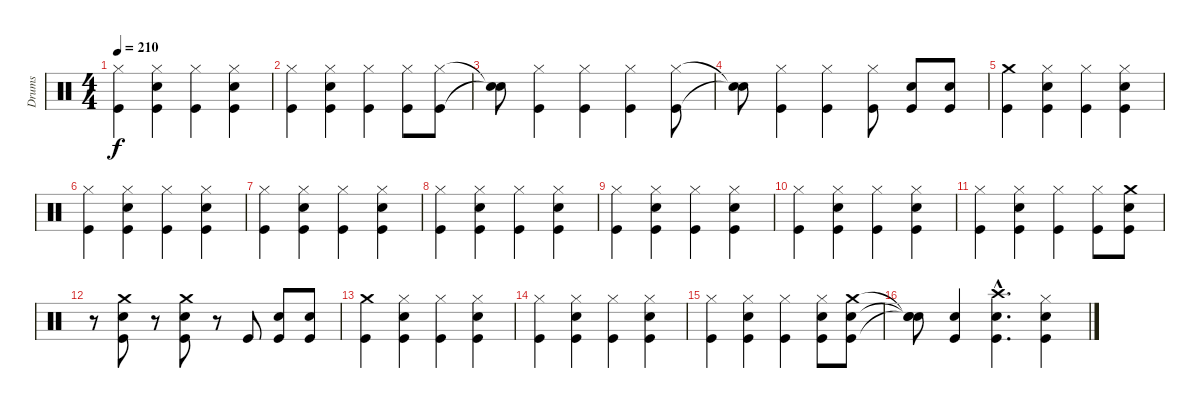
\track ("Drums" "Drums") {instrument percussion}
\staff {score}
\articulation defaults
\ts (4 4)
\tempo 210
\clef neutral
\ks c
("Hi-Hat (closed)" "Kick (hit)").4{dy f} ("Hi-Hat (closed)" "Snare (hit) 2" "Kick (hit)").4 ("Hi-Hat (closed)" "Kick (hit)").4 ("Hi-Hat (closed)" "Snare (hit) 2" "Kick (hit)").4 |
("Hi-Hat (closed)" "Kick (hit)").4 ("Hi-Hat (closed)" "Snare (hit) 2" "Kick (hit)").4 ("Hi-Hat (closed)" "Kick (hit)").4 ("Hi-Hat (closed)" "Kick (hit)").8 ("Hi-Hat (closed)" "Kick (hit)").8 |
("Snare (hit)"{t} "Snare (hit)"{t}).8 ("Hi-Hat (closed)" "Kick (hit)").4 ("Hi-Hat (closed)" "Kick (hit)").4 ("Hi-Hat (closed)" "Kick (hit)").4 ("Hi-Hat (closed)" "Kick (hit)").8 |
("Snare (hit)"{t} "Snare (hit)"{t}).8 ("Hi-Hat (closed)" "Kick (hit)").4 ("Hi-Hat (closed)" "Kick (hit)").4 ("Hi-Hat (closed)" "Kick (hit)").8 ("Snare (hit) 2" "Kick (hit)").8 ("Snare (hit) 2" "Kick (hit)").8 |
("Crash medium (hit)" "Kick (hit)").4 ("Hi-Hat (closed)" "Snare (hit) 2" "Kick (hit)").4 ("Hi-Hat (closed)" "Kick (hit)").4 ("Hi-Hat (closed)" "Snare (hit) 2" "Kick (hit)").4 |
("Hi-Hat (closed)" "Kick (hit)").4 ("Hi-Hat (closed)" "Snare (hit) 2" "Kick (hit)").4 ("Hi-Hat (closed)" "Kick (hit)").4 ("Hi-Hat (closed)" "Snare (hit) 2" "Kick (hit)").4 |
("Hi-Hat (closed)" "Kick (hit)").4 ("Hi-Hat (closed)" "Snare (hit) 2" "Kick (hit)").4 ("Hi-Hat (closed)" "Kick (hit)").4 ("Hi-Hat (closed)" "Snare (hit) 2" "Kick (hit)").4 |
("Hi-Hat (closed)" "Kick (hit)").4 ("Hi-Hat (closed)" "Snare (hit) 2" "Kick (hit)").4 ("Hi-Hat (closed)" "Kick (hit)").4 ("Hi-Hat (closed)" "Snare (hit) 2" "Kick (hit)").4 |
("Hi-Hat (closed)" "Kick (hit)").4 ("Hi-Hat (closed)" "Snare (hit) 2" "Kick (hit)").4 ("Hi-Hat (closed)" "Kick (hit)").4 ("Hi-Hat (closed)" "Snare (hit) 2" "Kick (hit)").4 |
("Hi-Hat (closed)" "Kick (hit)").4 ("Hi-Hat (closed)" "Snare (hit) 2" "Kick (hit)").4 ("Hi-Hat (closed)" "Kick (hit)").4 ("Hi-Hat (closed)" "Snare (hit) 2" "Kick (hit)").4 |
("Hi-Hat (closed)" "Kick (hit)").4 ("Hi-Hat (closed)" "Snare (hit) 2" "Kick (hit)").4 ("Hi-Hat (closed)" "Kick (hit)").4 ("Hi-Hat (closed)" "Kick (hit)").8 ("Crash medium (hit)" "Snare (hit) 2" "Kick (hit)").8 |
r.8 ("Crash medium (hit)" "Snare (hit) 2" "Kick (hit)").8 r.8 ("Crash medium (hit)" "Snare (hit) 2" "Kick (hit)").8 r.8 "Kick (hit)".8 ("Snare (hit) 2" "Kick (hit)").8 ("Snare (hit) 2" "Kick (hit)").8 |
("Crash medium (hit)" "Kick (hit)").4 ("Hi-Hat (closed)" "Snare (hit) 2" "Kick (hit)").4 ("Hi-Hat (closed)" "Kick (hit)").4 ("Hi-Hat (closed)" "Snare (hit) 2" "Kick (hit)").4 |
("Hi-Hat (closed)" "Kick (hit)").4 ("Hi-Hat (closed)" "Snare (hit) 2" "Kick (hit)").4 ("Hi-Hat (closed)" "Kick (hit)").4 ("Hi-Hat (closed)" "Snare (hit) 2" "Kick (hit)").4 |
("Hi-Hat (closed)" "Kick (hit)").4 ("Hi-Hat (closed)" "Snare (hit) 2" "Kick (hit)").4 ("Hi-Hat (closed)" "Kick (hit)").4 ("Hi-Hat (closed)" "Snare (hit) 2" "Kick (hit)").8 ("Crash medium (hit)" "Snare (hit) 2" "Kick (hit)").8 |
("Snare (hit)"{t} "Snare (hit)"{t} "Snare (hit)"{t}).8 ("Snare (hit) 2" "Kick (hit)").4 ("Crash high (hit)"{hac} "Snare (hit) 2"{hac} "Kick (hit)"{hac}).4{d} ("Hi-Hat (closed)" "Snare (hit) 2" "Kick (hit)").4
